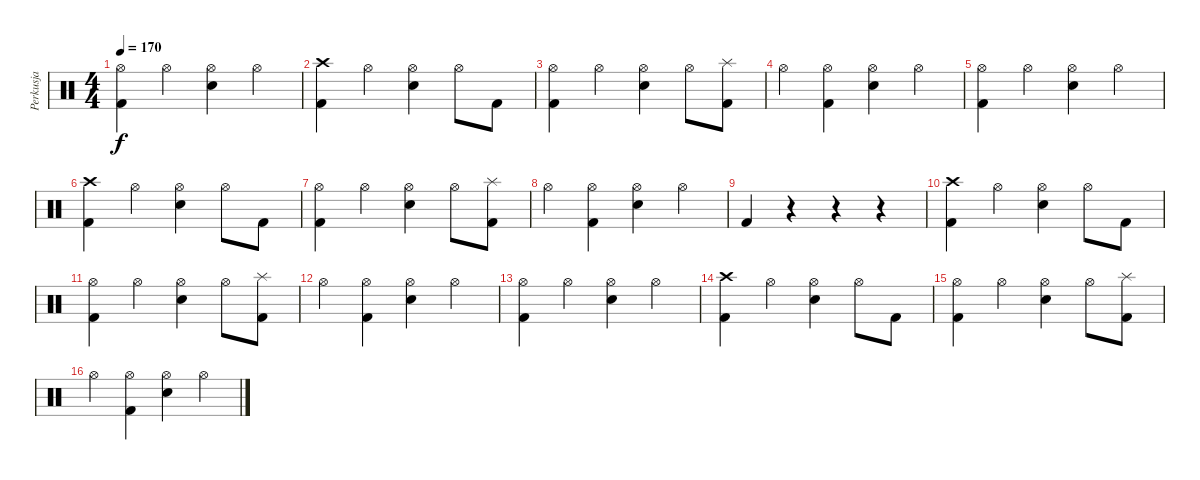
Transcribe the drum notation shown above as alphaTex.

\track ("Perkusja" "Perkusja") {instrument percussion}
\staff {score}
\articulation defaults
\ts (4 4)
\tempo 170
\clef neutral
\ks c
("Hi-Hat (open)" "Kick (hit) 2").4{dy f} "Hi-Hat (open)".4 ("Hi-Hat (open)" "Electric Snare (hit)").4 "Hi-Hat (open)".4 |
("Crash high (hit)" "Kick (hit) 2").4 "Hi-Hat (open)".4 ("Hi-Hat (open)" "Electric Snare (hit)").4 "Hi-Hat (open)".8 "Kick (hit) 2".8 |
("Hi-Hat (open)" "Kick (hit) 2").4 "Hi-Hat (open)".4 ("Hi-Hat (open)" "Electric Snare (hit)").4 "Hi-Hat (open)".8 ("Splash (hit)" "Kick (hit) 2").8 |
"Hi-Hat (open)".4 ("Hi-Hat (open)" "Kick (hit) 2").4 ("Hi-Hat (open)" "Electric Snare (hit)").4 "Hi-Hat (open)".4 |
("Hi-Hat (open)" "Kick (hit) 2").4 "Hi-Hat (open)".4 ("Hi-Hat (open)" "Electric Snare (hit)").4 "Hi-Hat (open)".4 |
("Crash high (hit)" "Kick (hit) 2").4 "Hi-Hat (open)".4 ("Hi-Hat (open)" "Electric Snare (hit)").4 "Hi-Hat (open)".8 "Kick (hit) 2".8 |
("Hi-Hat (open)" "Kick (hit) 2").4 "Hi-Hat (open)".4 ("Hi-Hat (open)" "Electric Snare (hit)").4 "Hi-Hat (open)".8 ("Splash (hit)" "Kick (hit) 2").8 |
"Hi-Hat (open)".4 ("Hi-Hat (open)" "Kick (hit) 2").4 ("Hi-Hat (open)" "Electric Snare (hit)").4 "Hi-Hat (open)".4 |
"Kick (hit) 2".4 r.4 r.4 r.4 |
("Crash high (hit)" "Kick (hit) 2").4 "Hi-Hat (open)".4 ("Hi-Hat (open)" "Electric Snare (hit)").4 "Hi-Hat (open)".8 "Kick (hit) 2".8 |
("Hi-Hat (open)" "Kick (hit) 2").4 "Hi-Hat (open)".4 ("Hi-Hat (open)" "Electric Snare (hit)").4 "Hi-Hat (open)".8 ("Splash (hit)" "Kick (hit) 2").8 |
"Hi-Hat (open)".4 ("Hi-Hat (open)" "Kick (hit) 2").4 ("Hi-Hat (open)" "Electric Snare (hit)").4 "Hi-Hat (open)".4 |
("Hi-Hat (open)" "Kick (hit) 2").4 "Hi-Hat (open)".4 ("Hi-Hat (open)" "Electric Snare (hit)").4 "Hi-Hat (open)".4 |
("Crash high (hit)" "Kick (hit) 2").4 "Hi-Hat (open)".4 ("Hi-Hat (open)" "Electric Snare (hit)").4 "Hi-Hat (open)".8 "Kick (hit) 2".8 |
("Hi-Hat (open)" "Kick (hit) 2").4 "Hi-Hat (open)".4 ("Hi-Hat (open)" "Electric Snare (hit)").4 "Hi-Hat (open)".8 ("Splash (hit)" "Kick (hit) 2").8 |
"Hi-Hat (open)".4 ("Hi-Hat (open)" "Kick (hit) 2").4 ("Hi-Hat (open)" "Electric Snare (hit)").4 "Hi-Hat (open)".4
